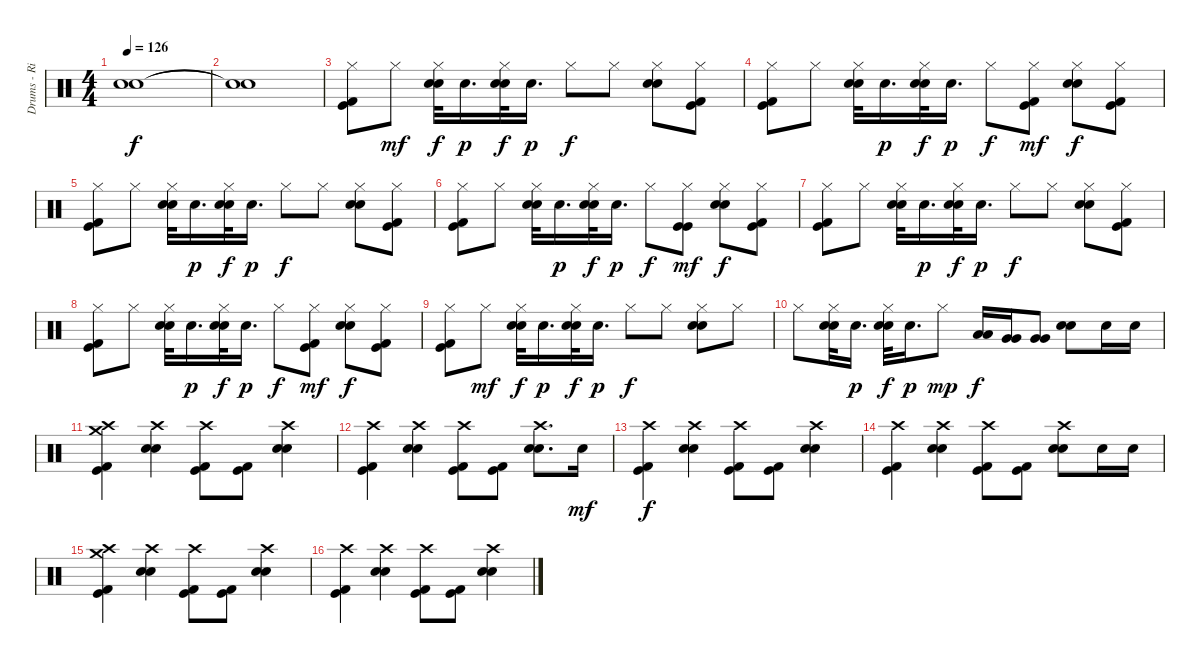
\track ("Drums - Rian" "Drums - Ri") {instrument percussion}
\staff {score}
\articulation defaults
\ts (4 4)
\tempo 126
\clef neutral
\ks c
("Snare (hit)"{t} "Snare (hit)"{t}).1{dy f} |
("Snare (hit)"{t} "Snare (hit)"{t}).1 |
("Kick (hit) 2" "Kick (hit)" "Hi-Hat (closed)").8 "Hi-Hat (closed)".8{dy mf} ("Electric Snare (hit)" "Electric Snare (hit)" "Hi-Hat (closed)").32{dy f} "Electric Snare (hit)".16{d dy p} ("Electric Snare (hit)" "Electric Snare (hit)" "Hi-Hat (closed)").32{dy f} "Electric Snare (hit)".16{d dy p} "Hi-Hat (closed)".8{dy f} "Hi-Hat (closed)".8 ("Electric Snare (hit)" "Electric Snare (hit)" "Hi-Hat (closed)").8 ("Kick (hit) 2" "Kick (hit)" "Hi-Hat (closed)").8 |
("Kick (hit) 2" "Kick (hit)" "Hi-Hat (closed)").8 "Hi-Hat (closed)".8 ("Electric Snare (hit)" "Electric Snare (hit)" "Hi-Hat (closed)").32 "Electric Snare (hit)".16{d dy p} ("Electric Snare (hit)" "Electric Snare (hit)" "Hi-Hat (closed)").32{dy f} "Electric Snare (hit)".16{d dy p} "Hi-Hat (closed)".8{dy f} ("Kick (hit) 2" "Kick (hit)" "Hi-Hat (closed)").8{dy mf} ("Electric Snare (hit)" "Electric Snare (hit)" "Hi-Hat (closed)").8{dy f} ("Kick (hit) 2" "Kick (hit)" "Hi-Hat (closed)").8 |
("Kick (hit) 2" "Kick (hit)" "Hi-Hat (closed)").8 "Hi-Hat (closed)".8 ("Electric Snare (hit)" "Electric Snare (hit)" "Hi-Hat (closed)").32 "Electric Snare (hit)".16{d dy p} ("Electric Snare (hit)" "Electric Snare (hit)" "Hi-Hat (closed)").32{dy f} "Electric Snare (hit)".16{d dy p} "Hi-Hat (closed)".8{dy f} "Hi-Hat (closed)".8 ("Electric Snare (hit)" "Electric Snare (hit)" "Hi-Hat (closed)").8 ("Kick (hit) 2" "Kick (hit)" "Hi-Hat (closed)").8 |
("Kick (hit) 2" "Kick (hit)" "Hi-Hat (closed)").8 "Hi-Hat (closed)".8 ("Electric Snare (hit)" "Electric Snare (hit)" "Hi-Hat (closed)").32 "Electric Snare (hit)".16{d dy p} ("Electric Snare (hit)" "Electric Snare (hit)" "Hi-Hat (closed)").32{dy f} "Electric Snare (hit)".16{d dy p} "Hi-Hat (closed)".8{dy f} ("Kick (hit)" "Kick (hit)" "Hi-Hat (closed)").8{dy mf} ("Electric Snare (hit)" "Electric Snare (hit)" "Hi-Hat (closed)").8{dy f} ("Kick (hit) 2" "Kick (hit)" "Hi-Hat (closed)").8 |
("Kick (hit) 2" "Kick (hit)" "Hi-Hat (closed)").8 "Hi-Hat (closed)".8 ("Electric Snare (hit)" "Electric Snare (hit)" "Hi-Hat (closed)").32 "Electric Snare (hit)".16{d dy p} ("Electric Snare (hit)" "Electric Snare (hit)" "Hi-Hat (closed)").32{dy f} "Electric Snare (hit)".16{d dy p} "Hi-Hat (closed)".8{dy f} "Hi-Hat (closed)".8 ("Electric Snare (hit)" "Electric Snare (hit)" "Hi-Hat (closed)").8 ("Kick (hit) 2" "Kick (hit)" "Hi-Hat (closed)").8 |
("Kick (hit) 2" "Kick (hit)" "Hi-Hat (closed)").8 "Hi-Hat (closed)".8 ("Electric Snare (hit)" "Electric Snare (hit)" "Hi-Hat (closed)").32 "Electric Snare (hit)".16{d dy p} ("Electric Snare (hit)" "Electric Snare (hit)" "Hi-Hat (closed)").32{dy f} "Electric Snare (hit)".16{d dy p} "Hi-Hat (closed)".8{dy f} ("Kick (hit) 2" "Kick (hit)" "Hi-Hat (closed)").8{dy mf} ("Electric Snare (hit)" "Electric Snare (hit)" "Hi-Hat (closed)").8{dy f} ("Kick (hit) 2" "Kick (hit)" "Hi-Hat (closed)").8 |
("Kick (hit) 2" "Kick (hit)" "Hi-Hat (closed)").8 "Hi-Hat (closed)".8{dy mf} ("Electric Snare (hit)" "Electric Snare (hit)" "Hi-Hat (closed)").32{dy f} "Electric Snare (hit)".16{d dy p} ("Electric Snare (hit)" "Electric Snare (hit)" "Hi-Hat (closed)").32{dy f} "Electric Snare (hit)".16{d dy p} "Hi-Hat (closed)".8{dy f} "Hi-Hat (closed)".8 ("Electric Snare (hit)" "Electric Snare (hit)" "Hi-Hat (closed)").8 "Hi-Hat (closed)".8 |
"Hi-Hat (closed)".8 ("Electric Snare (hit)" "Electric Snare (hit)" "Hi-Hat (closed)").32 "Electric Snare (hit)".16{d dy p} ("Electric Snare (hit)" "Electric Snare (hit)" "Hi-Hat (closed)").32{dy f} "Electric Snare (hit)".16{d dy p} "Hi-Hat (closed)".8{dy mp} ("Low Tom (hit)" "Low Tom (hit)").16{dy f} ("Very Low Tom (hit)" "Very Low Tom (hit)").16 ("Very Low Tom (hit)" "Very Low Tom (hit)").8 ("Electric Snare (hit)" "Electric Snare (hit)").8 "Electric Snare (hit)".16 "Electric Snare (hit)".16 |
("Kick (hit) 2" "Kick (hit)" "Crash high (hit)" "Crash medium (hit)").4 ("Electric Snare (hit)" "Electric Snare (hit)" "Crash high (hit)").4 ("Kick (hit) 2" "Kick (hit)" "Crash high (hit)").8 ("Kick (hit) 2" "Kick (hit)").8 ("Electric Snare (hit)" "Electric Snare (hit)" "Crash high (hit)").4 |
("Kick (hit) 2" "Kick (hit)" "Crash high (hit)").4 ("Electric Snare (hit)" "Electric Snare (hit)" "Crash high (hit)").4 ("Kick (hit) 2" "Kick (hit)" "Crash high (hit)").8 ("Kick (hit) 2" "Kick (hit)").8 ("Electric Snare (hit)" "Electric Snare (hit)" "Crash high (hit)").8{d} "Electric Snare (hit)".16{dy mf} |
("Kick (hit) 2" "Kick (hit)" "Crash high (hit)").4{dy f} ("Electric Snare (hit)" "Electric Snare (hit)" "Crash high (hit)").4 ("Kick (hit) 2" "Kick (hit)" "Crash high (hit)").8 ("Kick (hit) 2" "Kick (hit)").8 ("Electric Snare (hit)" "Electric Snare (hit)" "Crash high (hit)").4 |
("Kick (hit) 2" "Kick (hit)" "Crash high (hit)").4 ("Electric Snare (hit)" "Electric Snare (hit)" "Crash high (hit)").4 ("Kick (hit) 2" "Kick (hit)" "Crash high (hit)").8 ("Kick (hit) 2" "Kick (hit)").8 ("Electric Snare (hit)" "Electric Snare (hit)" "Crash high (hit)").8 "Electric Snare (hit)".16 "Electric Snare (hit)".16 |
("Kick (hit) 2" "Kick (hit)" "Crash high (hit)" "Crash medium (hit)").4 ("Electric Snare (hit)" "Electric Snare (hit)" "Crash high (hit)").4 ("Kick (hit) 2" "Kick (hit)" "Crash high (hit)").8 ("Kick (hit) 2" "Kick (hit)").8 ("Electric Snare (hit)" "Electric Snare (hit)" "Crash high (hit)").4 |
("Kick (hit) 2" "Kick (hit)" "Crash high (hit)").4 ("Electric Snare (hit)" "Electric Snare (hit)" "Crash high (hit)").4 ("Kick (hit) 2" "Kick (hit)" "Crash high (hit)").8 ("Kick (hit) 2" "Kick (hit)").8 ("Electric Snare (hit)" "Electric Snare (hit)" "Crash high (hit)").4
